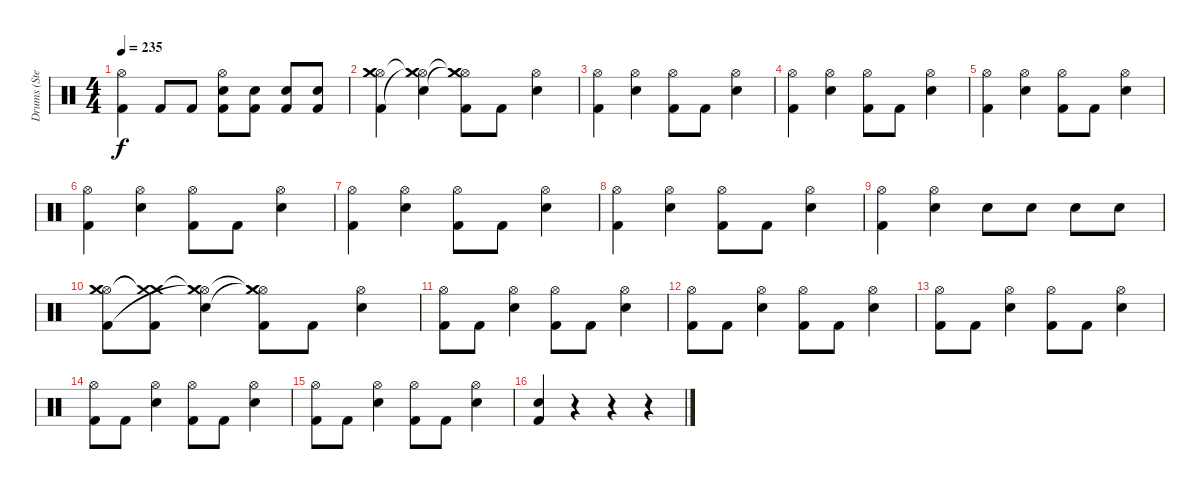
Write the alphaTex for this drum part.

\track ("Drums (Steve Jocz)" "Drums (Ste") {instrument percussion}
\staff {score}
\articulation defaults
\ts (4 4)
\tempo 235
\clef neutral
\ks c
("Hi-Hat (open)" "Kick (hit) 2").4{dy f} "Kick (hit) 2".8 "Kick (hit) 2".8 ("Hi-Hat (open)" "Electric Snare (hit)" "Kick (hit) 2").8 ("Electric Snare (hit)" "Kick (hit) 2").8 ("Electric Snare (hit)" "Kick (hit) 2").8 ("Electric Snare (hit)" "Kick (hit) 2").8 |
("Hi-Hat (open)" "Crash medium (hit)" "Crash medium (hit)" "Kick (hit) 2").4 ("Hi-Hat (open)" "Crash medium (hit)"{t} "Electric Snare (hit)" "Crash medium (hit)"{t}).4 ("Hi-Hat (open)" "Crash medium (hit)"{t} "Crash medium (hit)"{t} "Kick (hit) 2").8 "Kick (hit) 2".8 ("Hi-Hat (open)" "Electric Snare (hit)").4 |
("Hi-Hat (open)" "Kick (hit) 2").4 ("Hi-Hat (open)" "Electric Snare (hit)").4 ("Hi-Hat (open)" "Kick (hit) 2").8 "Kick (hit) 2".8 ("Hi-Hat (open)" "Electric Snare (hit)").4 |
("Hi-Hat (open)" "Kick (hit) 2").4 ("Hi-Hat (open)" "Electric Snare (hit)").4 ("Hi-Hat (open)" "Kick (hit) 2").8 "Kick (hit) 2".8 ("Hi-Hat (open)" "Electric Snare (hit)").4 |
("Hi-Hat (open)" "Kick (hit) 2").4 ("Hi-Hat (open)" "Electric Snare (hit)").4 ("Hi-Hat (open)" "Kick (hit) 2").8 "Kick (hit) 2".8 ("Hi-Hat (open)" "Electric Snare (hit)").4 |
("Hi-Hat (open)" "Kick (hit) 2").4 ("Hi-Hat (open)" "Electric Snare (hit)").4 ("Hi-Hat (open)" "Kick (hit) 2").8 "Kick (hit) 2".8 ("Hi-Hat (open)" "Electric Snare (hit)").4 |
("Hi-Hat (open)" "Kick (hit) 2").4 ("Hi-Hat (open)" "Electric Snare (hit)").4 ("Hi-Hat (open)" "Kick (hit) 2").8 "Kick (hit) 2".8 ("Hi-Hat (open)" "Electric Snare (hit)").4 |
("Hi-Hat (open)" "Kick (hit) 2").4 ("Hi-Hat (open)" "Electric Snare (hit)").4 ("Hi-Hat (open)" "Kick (hit) 2").8 "Kick (hit) 2".8 ("Hi-Hat (open)" "Electric Snare (hit)").4 |
("Hi-Hat (open)" "Kick (hit) 2").4 ("Hi-Hat (open)" "Electric Snare (hit)").4 "Electric Snare (hit)".8 "Electric Snare (hit)".8 "Electric Snare (hit)".8 "Electric Snare (hit)".8 |
("Hi-Hat (open)" "Crash medium (hit)" "Crash medium (hit)" "Kick (hit) 2").8 ("Crash medium (hit)"{t} "Crash medium (hit)"{t} "Kick (hit) 2").8 ("Hi-Hat (open)" "Crash medium (hit)"{t} "Electric Snare (hit)" "Crash medium (hit)"{t}).4 ("Hi-Hat (open)" "Crash medium (hit)"{t} "Crash medium (hit)"{t} "Kick (hit) 2").8 "Kick (hit) 2".8 ("Hi-Hat (open)" "Electric Snare (hit)").4 |
("Hi-Hat (open)" "Kick (hit) 2").8 "Kick (hit) 2".8 ("Hi-Hat (open)" "Electric Snare (hit)").4 ("Hi-Hat (open)" "Kick (hit) 2").8 "Kick (hit) 2".8 ("Hi-Hat (open)" "Electric Snare (hit)").4 |
("Hi-Hat (open)" "Kick (hit) 2").8 "Kick (hit) 2".8 ("Hi-Hat (open)" "Electric Snare (hit)").4 ("Hi-Hat (open)" "Kick (hit) 2").8 "Kick (hit) 2".8 ("Hi-Hat (open)" "Electric Snare (hit)").4 |
("Hi-Hat (open)" "Kick (hit) 2").8 "Kick (hit) 2".8 ("Hi-Hat (open)" "Electric Snare (hit)").4 ("Hi-Hat (open)" "Kick (hit) 2").8 "Kick (hit) 2".8 ("Hi-Hat (open)" "Electric Snare (hit)").4 |
("Hi-Hat (open)" "Kick (hit) 2").8 "Kick (hit) 2".8 ("Hi-Hat (open)" "Electric Snare (hit)").4 ("Hi-Hat (open)" "Kick (hit) 2").8 "Kick (hit) 2".8 ("Hi-Hat (open)" "Electric Snare (hit)").4 |
("Hi-Hat (open)" "Kick (hit) 2").8 "Kick (hit) 2".8 ("Hi-Hat (open)" "Electric Snare (hit)").4 ("Hi-Hat (open)" "Kick (hit) 2").8 "Kick (hit) 2".8 ("Hi-Hat (open)" "Electric Snare (hit)").4 |
("Electric Snare (hit)" "Kick (hit) 2").4 r.4 r.4 r.4
